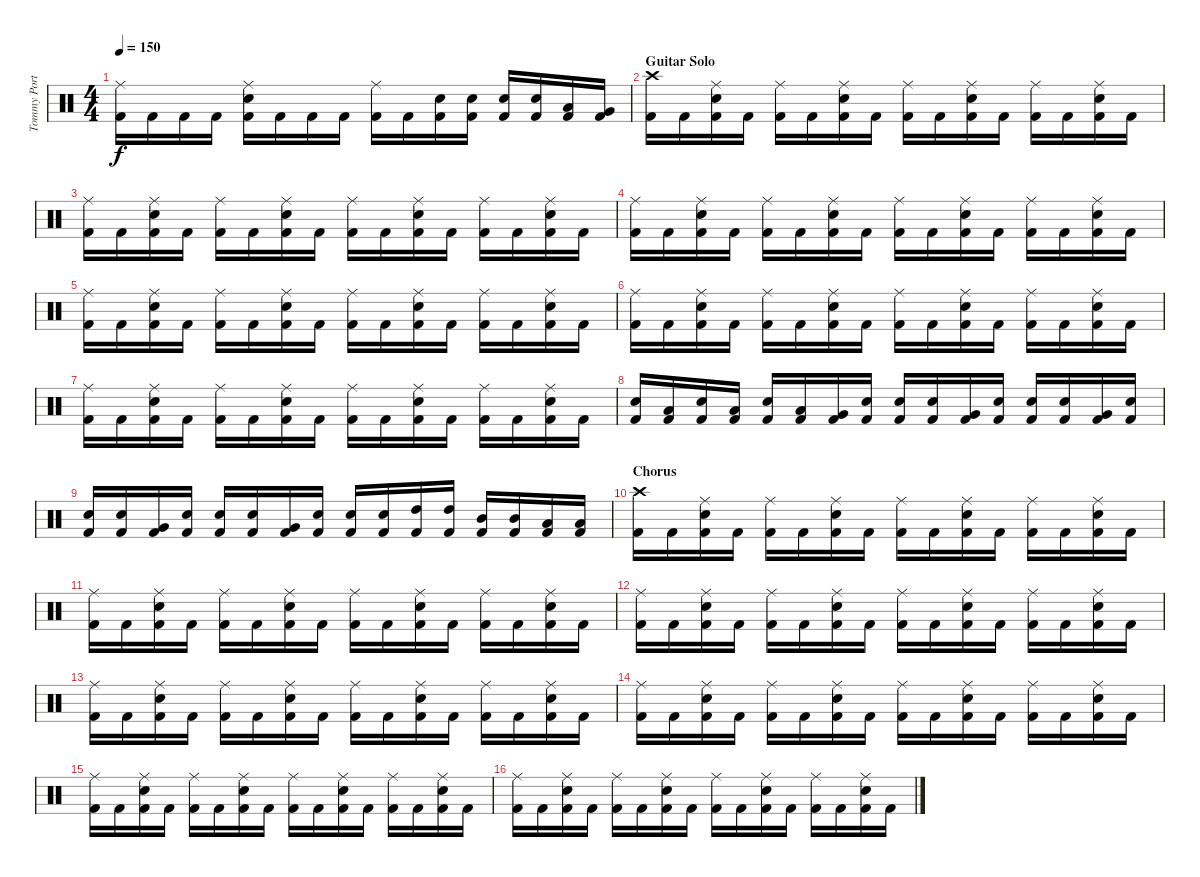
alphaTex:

\track ("Tommy Portino - Drums" "Tommy Port") {instrument percussion}
\staff {score}
\articulation defaults
\ts (4 4)
\tempo 150
\clef neutral
\ks c
("Ride (middle)" "Kick (hit) 2").16{dy f} "Kick (hit) 2".16 "Kick (hit) 2".16 "Kick (hit) 2".16 ("Ride (middle)" "Electric Snare (hit)" "Kick (hit) 2").16 "Kick (hit) 2".16 "Kick (hit) 2".16 "Kick (hit) 2".16 ("Ride (middle)" "Kick (hit) 2").16 "Kick (hit) 2".16 ("Electric Snare (hit)" "Kick (hit) 2").16 ("Electric Snare (hit)" "Kick (hit) 2").16 ("Electric Snare (hit)" "Kick (hit) 2").16 ("Electric Snare (hit)" "Kick (hit) 2").16 ("Low Tom (hit)" "Kick (hit) 2").16 ("Very Low Tom (hit)" "Kick (hit) 2").16 |
\section ("" "Guitar Solo")
("Crash high (hit)" "Kick (hit) 2").16 "Kick (hit) 2".16 ("Ride (middle)" "Electric Snare (hit)" "Kick (hit) 2").16 "Kick (hit) 2".16 ("Ride (middle)" "Kick (hit) 2").16 "Kick (hit) 2".16 ("Ride (middle)" "Electric Snare (hit)" "Kick (hit) 2").16 "Kick (hit) 2".16 ("Ride (middle)" "Kick (hit) 2").16 "Kick (hit) 2".16 ("Ride (middle)" "Electric Snare (hit)" "Kick (hit) 2").16 "Kick (hit) 2".16 ("Ride (middle)" "Kick (hit) 2").16 "Kick (hit) 2".16 ("Ride (middle)" "Electric Snare (hit)" "Kick (hit) 2").16 "Kick (hit) 2".16 |
("Ride (middle)" "Kick (hit) 2").16 "Kick (hit) 2".16 ("Ride (middle)" "Electric Snare (hit)" "Kick (hit) 2").16 "Kick (hit) 2".16 ("Ride (middle)" "Kick (hit) 2").16 "Kick (hit) 2".16 ("Ride (middle)" "Electric Snare (hit)" "Kick (hit) 2").16 "Kick (hit) 2".16 ("Ride (middle)" "Kick (hit) 2").16 "Kick (hit) 2".16 ("Ride (middle)" "Electric Snare (hit)" "Kick (hit) 2").16 "Kick (hit) 2".16 ("Ride (middle)" "Kick (hit) 2").16 "Kick (hit) 2".16 ("Ride (middle)" "Electric Snare (hit)" "Kick (hit) 2").16 "Kick (hit) 2".16 |
("Ride (middle)" "Kick (hit) 2").16 "Kick (hit) 2".16 ("Ride (middle)" "Electric Snare (hit)" "Kick (hit) 2").16 "Kick (hit) 2".16 ("Ride (middle)" "Kick (hit) 2").16 "Kick (hit) 2".16 ("Ride (middle)" "Electric Snare (hit)" "Kick (hit) 2").16 "Kick (hit) 2".16 ("Ride (middle)" "Kick (hit) 2").16 "Kick (hit) 2".16 ("Ride (middle)" "Electric Snare (hit)" "Kick (hit) 2").16 "Kick (hit) 2".16 ("Ride (middle)" "Kick (hit) 2").16 "Kick (hit) 2".16 ("Ride (middle)" "Electric Snare (hit)" "Kick (hit) 2").16 "Kick (hit) 2".16 |
("Ride (middle)" "Kick (hit) 2").16 "Kick (hit) 2".16 ("Ride (middle)" "Electric Snare (hit)" "Kick (hit) 2").16 "Kick (hit) 2".16 ("Ride (middle)" "Kick (hit) 2").16 "Kick (hit) 2".16 ("Ride (middle)" "Electric Snare (hit)" "Kick (hit) 2").16 "Kick (hit) 2".16 ("Ride (middle)" "Kick (hit) 2").16 "Kick (hit) 2".16 ("Ride (middle)" "Electric Snare (hit)" "Kick (hit) 2").16 "Kick (hit) 2".16 ("Ride (middle)" "Kick (hit) 2").16 "Kick (hit) 2".16 ("Ride (middle)" "Electric Snare (hit)" "Kick (hit) 2").16 "Kick (hit) 2".16 |
("Ride (middle)" "Kick (hit) 2").16 "Kick (hit) 2".16 ("Ride (middle)" "Electric Snare (hit)" "Kick (hit) 2").16 "Kick (hit) 2".16 ("Ride (middle)" "Kick (hit) 2").16 "Kick (hit) 2".16 ("Ride (middle)" "Electric Snare (hit)" "Kick (hit) 2").16 "Kick (hit) 2".16 ("Ride (middle)" "Kick (hit) 2").16 "Kick (hit) 2".16 ("Ride (middle)" "Electric Snare (hit)" "Kick (hit) 2").16 "Kick (hit) 2".16 ("Ride (middle)" "Kick (hit) 2").16 "Kick (hit) 2".16 ("Ride (middle)" "Electric Snare (hit)" "Kick (hit) 2").16 "Kick (hit) 2".16 |
("Ride (middle)" "Kick (hit) 2").16 "Kick (hit) 2".16 ("Ride (middle)" "Electric Snare (hit)" "Kick (hit) 2").16 "Kick (hit) 2".16 ("Ride (middle)" "Kick (hit) 2").16 "Kick (hit) 2".16 ("Ride (middle)" "Electric Snare (hit)" "Kick (hit) 2").16 "Kick (hit) 2".16 ("Ride (middle)" "Kick (hit) 2").16 "Kick (hit) 2".16 ("Ride (middle)" "Electric Snare (hit)" "Kick (hit) 2").16 "Kick (hit) 2".16 ("Ride (middle)" "Kick (hit) 2").16 "Kick (hit) 2".16 ("Ride (middle)" "Electric Snare (hit)" "Kick (hit) 2").16 "Kick (hit) 2".16 |
("Electric Snare (hit)" "Kick (hit) 2").16 ("Low Tom (hit)" "Kick (hit) 2").16 ("Electric Snare (hit)" "Kick (hit) 2").16 ("Low Tom (hit)" "Kick (hit) 2").16 ("Electric Snare (hit)" "Kick (hit) 2").16 ("Low Tom (hit)" "Kick (hit) 2").16 ("Very Low Tom (hit)" "Kick (hit) 2").16 ("Electric Snare (hit)" "Kick (hit) 2").16 ("Electric Snare (hit)" "Kick (hit) 2").16 ("Electric Snare (hit)" "Kick (hit) 2").16 ("Very Low Tom (hit)" "Kick (hit) 2").16 ("Electric Snare (hit)" "Kick (hit) 2").16 ("Electric Snare (hit)" "Kick (hit) 2").16 ("Electric Snare (hit)" "Kick (hit) 2").16 ("Very Low Tom (hit)" "Kick (hit) 2").16 ("Electric Snare (hit)" "Kick (hit) 2").16 |
("Electric Snare (hit)" "Kick (hit) 2").16 ("Electric Snare (hit)" "Kick (hit) 2").16 ("Very Low Tom (hit)" "Kick (hit) 2").16 ("Electric Snare (hit)" "Kick (hit) 2").16 ("Electric Snare (hit)" "Kick (hit) 2").16 ("Electric Snare (hit)" "Kick (hit) 2").16 ("Very Low Tom (hit)" "Kick (hit) 2").16 ("Electric Snare (hit)" "Kick (hit) 2").16 ("Electric Snare (hit)" "Kick (hit) 2").16 ("Electric Snare (hit)" "Kick (hit) 2").16 ("High Tom (hit)" "Kick (hit) 2").16 ("High Tom (hit)" "Kick (hit) 2").16 ("Mid Tom (hit)" "Kick (hit) 2").16 ("Mid Tom (hit)" "Kick (hit) 2").16 ("Low Tom (hit)" "Kick (hit) 2").16 ("Low Tom (hit)" "Kick (hit) 2").16 |
\section ("" "Chorus")
("Crash high (hit)" "Kick (hit) 2").16 "Kick (hit) 2".16 ("Ride (middle)" "Electric Snare (hit)" "Kick (hit) 2").16 "Kick (hit) 2".16 ("Ride (middle)" "Kick (hit) 2").16 "Kick (hit) 2".16 ("Ride (middle)" "Electric Snare (hit)" "Kick (hit) 2").16 "Kick (hit) 2".16 ("Ride (middle)" "Kick (hit) 2").16 "Kick (hit) 2".16 ("Ride (middle)" "Electric Snare (hit)" "Kick (hit) 2").16 "Kick (hit) 2".16 ("Ride (middle)" "Kick (hit) 2").16 "Kick (hit) 2".16 ("Ride (middle)" "Electric Snare (hit)" "Kick (hit) 2").16 "Kick (hit) 2".16 |
("Ride (middle)" "Kick (hit) 2").16 "Kick (hit) 2".16 ("Ride (middle)" "Electric Snare (hit)" "Kick (hit) 2").16 "Kick (hit) 2".16 ("Ride (middle)" "Kick (hit) 2").16 "Kick (hit) 2".16 ("Ride (middle)" "Electric Snare (hit)" "Kick (hit) 2").16 "Kick (hit) 2".16 ("Ride (middle)" "Kick (hit) 2").16 "Kick (hit) 2".16 ("Ride (middle)" "Electric Snare (hit)" "Kick (hit) 2").16 "Kick (hit) 2".16 ("Ride (middle)" "Kick (hit) 2").16 "Kick (hit) 2".16 ("Ride (middle)" "Electric Snare (hit)" "Kick (hit) 2").16 "Kick (hit) 2".16 |
("Ride (middle)" "Kick (hit) 2").16 "Kick (hit) 2".16 ("Ride (middle)" "Electric Snare (hit)" "Kick (hit) 2").16 "Kick (hit) 2".16 ("Ride (middle)" "Kick (hit) 2").16 "Kick (hit) 2".16 ("Ride (middle)" "Electric Snare (hit)" "Kick (hit) 2").16 "Kick (hit) 2".16 ("Ride (middle)" "Kick (hit) 2").16 "Kick (hit) 2".16 ("Ride (middle)" "Electric Snare (hit)" "Kick (hit) 2").16 "Kick (hit) 2".16 ("Ride (middle)" "Kick (hit) 2").16 "Kick (hit) 2".16 ("Ride (middle)" "Electric Snare (hit)" "Kick (hit) 2").16 "Kick (hit) 2".16 |
("Ride (middle)" "Kick (hit) 2").16 "Kick (hit) 2".16 ("Ride (middle)" "Electric Snare (hit)" "Kick (hit) 2").16 "Kick (hit) 2".16 ("Ride (middle)" "Kick (hit) 2").16 "Kick (hit) 2".16 ("Ride (middle)" "Electric Snare (hit)" "Kick (hit) 2").16 "Kick (hit) 2".16 ("Ride (middle)" "Kick (hit) 2").16 "Kick (hit) 2".16 ("Ride (middle)" "Electric Snare (hit)" "Kick (hit) 2").16 "Kick (hit) 2".16 ("Ride (middle)" "Kick (hit) 2").16 "Kick (hit) 2".16 ("Ride (middle)" "Electric Snare (hit)" "Kick (hit) 2").16 "Kick (hit) 2".16 |
("Ride (middle)" "Kick (hit) 2").16 "Kick (hit) 2".16 ("Ride (middle)" "Electric Snare (hit)" "Kick (hit) 2").16 "Kick (hit) 2".16 ("Ride (middle)" "Kick (hit) 2").16 "Kick (hit) 2".16 ("Ride (middle)" "Electric Snare (hit)" "Kick (hit) 2").16 "Kick (hit) 2".16 ("Ride (middle)" "Kick (hit) 2").16 "Kick (hit) 2".16 ("Ride (middle)" "Electric Snare (hit)" "Kick (hit) 2").16 "Kick (hit) 2".16 ("Ride (middle)" "Kick (hit) 2").16 "Kick (hit) 2".16 ("Ride (middle)" "Electric Snare (hit)" "Kick (hit) 2").16 "Kick (hit) 2".16 |
("Ride (middle)" "Kick (hit) 2").16 "Kick (hit) 2".16 ("Ride (middle)" "Electric Snare (hit)" "Kick (hit) 2").16 "Kick (hit) 2".16 ("Ride (middle)" "Kick (hit) 2").16 "Kick (hit) 2".16 ("Ride (middle)" "Electric Snare (hit)" "Kick (hit) 2").16 "Kick (hit) 2".16 ("Ride (middle)" "Kick (hit) 2").16 "Kick (hit) 2".16 ("Ride (middle)" "Electric Snare (hit)" "Kick (hit) 2").16 "Kick (hit) 2".16 ("Ride (middle)" "Kick (hit) 2").16 "Kick (hit) 2".16 ("Ride (middle)" "Electric Snare (hit)" "Kick (hit) 2").16 "Kick (hit) 2".16 |
("Ride (middle)" "Kick (hit) 2").16 "Kick (hit) 2".16 ("Ride (middle)" "Electric Snare (hit)" "Kick (hit) 2").16 "Kick (hit) 2".16 ("Ride (middle)" "Kick (hit) 2").16 "Kick (hit) 2".16 ("Ride (middle)" "Electric Snare (hit)" "Kick (hit) 2").16 "Kick (hit) 2".16 ("Ride (middle)" "Kick (hit) 2").16 "Kick (hit) 2".16 ("Ride (middle)" "Electric Snare (hit)" "Kick (hit) 2").16 "Kick (hit) 2".16 ("Ride (middle)" "Kick (hit) 2").16 "Kick (hit) 2".16 ("Ride (middle)" "Electric Snare (hit)" "Kick (hit) 2").16 "Kick (hit) 2".16
